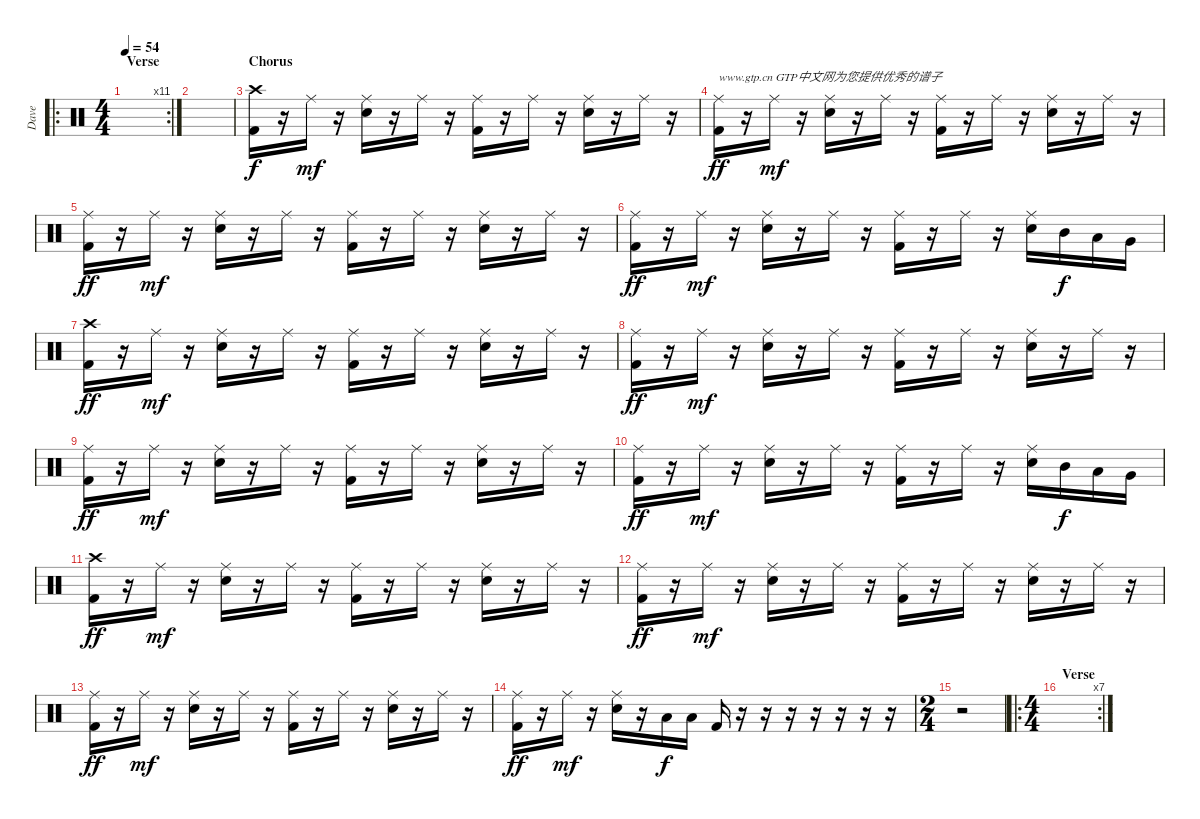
\track ("Dave" "Dave") {instrument percussion}
\staff {score}
\articulation defaults
\ro
\rc 11
\ts (4 4)
\section ("" "Verse")
\tempo 54
\clef neutral
\ks c
|
|
\section ("" "Chorus")
("Crash high (hit)" "Kick (hit) 2").16 r.16 "Ride (middle)".16{dy mf} r.16 ("Ride (middle)" "Snare (hit) 2").16 r.16 "Ride (middle)".16 r.16 ("Ride (middle)" "Kick (hit) 2").16 r.16 "Ride (middle)".16 r.16 ("Ride (middle)" "Snare (hit) 2").16 r.16 "Ride (middle)".16 r.16 |
("Ride (middle)" "Kick (hit) 2").16{txt "www.gtp.cn GTP中文网为您提供优秀的谱子" dy ff} r.16 "Ride (middle)".16{dy mf} r.16 ("Ride (middle)" "Snare (hit) 2").16 r.16 "Ride (middle)".16 r.16 ("Ride (middle)" "Kick (hit) 2").16 r.16 "Ride (middle)".16 r.16 ("Ride (middle)" "Snare (hit) 2").16 r.16 "Ride (middle)".16 r.16 |
("Ride (middle)" "Kick (hit) 2").16{dy ff} r.16 "Ride (middle)".16{dy mf} r.16 ("Ride (middle)" "Snare (hit) 2").16 r.16 "Ride (middle)".16 r.16 ("Ride (middle)" "Kick (hit) 2").16 r.16 "Ride (middle)".16 r.16 ("Ride (middle)" "Snare (hit) 2").16 r.16 "Ride (middle)".16 r.16 |
("Ride (middle)" "Kick (hit) 2").16{dy ff} r.16 "Ride (middle)".16{dy mf} r.16 ("Ride (middle)" "Snare (hit) 2").16 r.16 "Ride (middle)".16 r.16 ("Ride (middle)" "Kick (hit) 2").16 r.16 "Ride (middle)".16 r.16 ("Ride (middle)" "Snare (hit) 2").16 "Mid Tom (hit)".16{dy f} "Low Tom (hit)".16 "Very Low Tom (hit)".16 |
("Crash high (hit)" "Kick (hit) 2").16{dy ff} r.16 "Ride (middle)".16{dy mf} r.16 ("Ride (middle)" "Snare (hit) 2").16 r.16 "Ride (middle)".16 r.16 ("Ride (middle)" "Kick (hit) 2").16 r.16 "Ride (middle)".16 r.16 ("Ride (middle)" "Snare (hit) 2").16 r.16 "Ride (middle)".16 r.16 |
("Ride (middle)" "Kick (hit) 2").16{dy ff} r.16 "Ride (middle)".16{dy mf} r.16 ("Ride (middle)" "Snare (hit) 2").16 r.16 "Ride (middle)".16 r.16 ("Ride (middle)" "Kick (hit) 2").16 r.16 "Ride (middle)".16 r.16 ("Ride (middle)" "Snare (hit) 2").16 r.16 "Ride (middle)".16 r.16 |
("Ride (middle)" "Kick (hit) 2").16{dy ff} r.16 "Ride (middle)".16{dy mf} r.16 ("Ride (middle)" "Snare (hit) 2").16 r.16 "Ride (middle)".16 r.16 ("Ride (middle)" "Kick (hit) 2").16 r.16 "Ride (middle)".16 r.16 ("Ride (middle)" "Snare (hit) 2").16 r.16 "Ride (middle)".16 r.16 |
("Ride (middle)" "Kick (hit) 2").16{dy ff} r.16 "Ride (middle)".16{dy mf} r.16 ("Ride (middle)" "Snare (hit) 2").16 r.16 "Ride (middle)".16 r.16 ("Ride (middle)" "Kick (hit) 2").16 r.16 "Ride (middle)".16 r.16 ("Ride (middle)" "Snare (hit) 2").16 "Mid Tom (hit)".16{dy f} "Low Tom (hit)".16 "Very Low Tom (hit)".16 |
("Crash high (hit)" "Kick (hit) 2").16{dy ff} r.16 "Ride (middle)".16{dy mf} r.16 ("Ride (middle)" "Snare (hit) 2").16 r.16 "Ride (middle)".16 r.16 ("Ride (middle)" "Kick (hit) 2").16 r.16 "Ride (middle)".16 r.16 ("Ride (middle)" "Snare (hit) 2").16 r.16 "Ride (middle)".16 r.16 |
("Ride (middle)" "Kick (hit) 2").16{dy ff} r.16 "Ride (middle)".16{dy mf} r.16 ("Ride (middle)" "Snare (hit) 2").16 r.16 "Ride (middle)".16 r.16 ("Ride (middle)" "Kick (hit) 2").16 r.16 "Ride (middle)".16 r.16 ("Ride (middle)" "Snare (hit) 2").16 r.16 "Ride (middle)".16 r.16 |
("Ride (middle)" "Kick (hit) 2").16{dy ff} r.16 "Ride (middle)".16{dy mf} r.16 ("Ride (middle)" "Snare (hit) 2").16 r.16 "Ride (middle)".16 r.16 ("Ride (middle)" "Kick (hit) 2").16 r.16 "Ride (middle)".16 r.16 ("Ride (middle)" "Snare (hit) 2").16 r.16 "Ride (middle)".16 r.16 |
("Ride (middle)" "Kick (hit) 2").16{dy ff} r.16 "Ride (middle)".16{dy mf} r.16 ("Ride (middle)" "Snare (hit) 2").16 r.16 "Low Tom (hit)".16{dy f} "Low Tom (hit)".16 "Kick (hit) 2".16 r.16 r.16 r.16 r.16 r.16 r.16 r.16 |
\ts (2 4)
r.2 |
\ro
\rc 7
\ts (4 4)
\section ("" "Verse")
